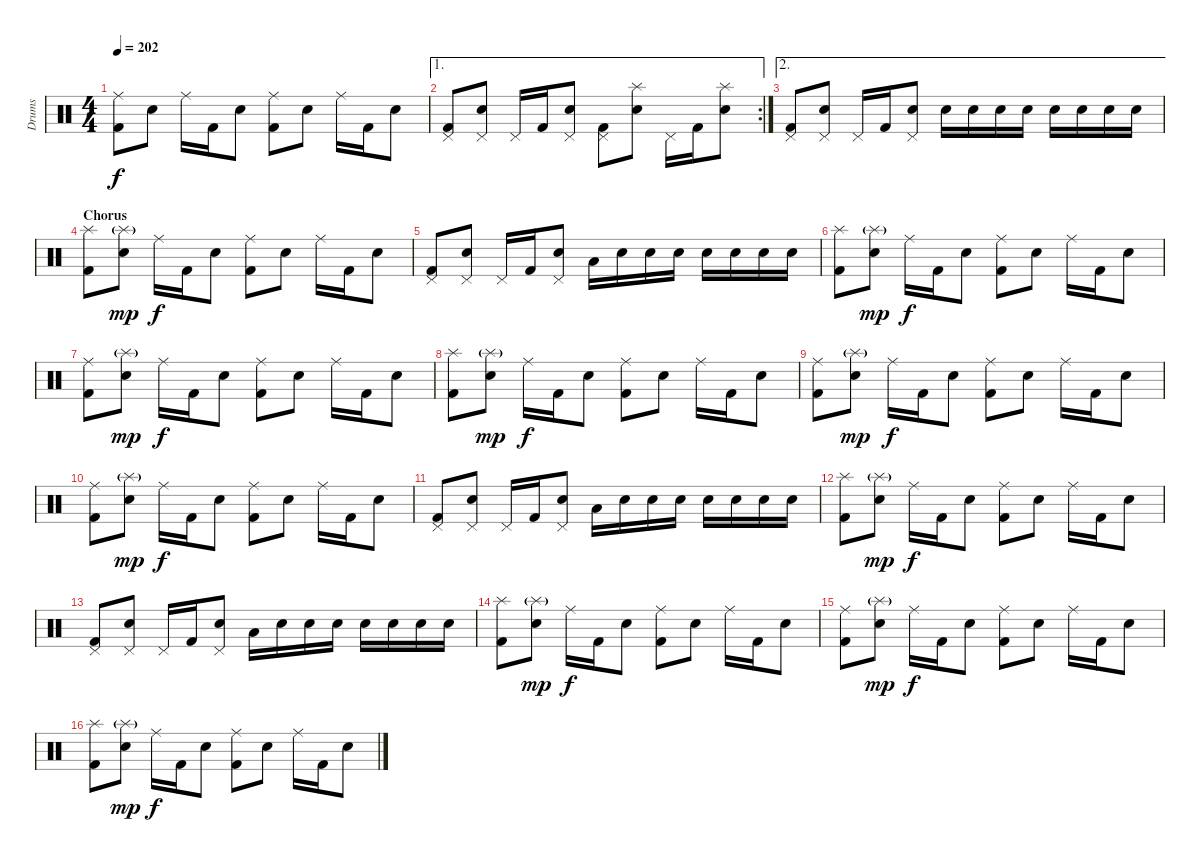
\track ("Drums" "Drums") {instrument percussion}
\staff {score}
\articulation defaults
\ts (4 4)
\tempo 202
\clef neutral
\ks c
("Ride (middle)" "Kick (hit) 2").8{dy f} "Electric Snare (hit)".8 "Ride (middle)".16 "Kick (hit) 2".16 "Electric Snare (hit)".8 ("Ride (middle)" "Kick (hit) 2").8 "Electric Snare (hit)".8 "Ride (middle)".16 "Kick (hit) 2".16 "Electric Snare (hit)".8 |
\ae 1
\rc 2
("Pedal Hi-Hat (hit)" "Kick (hit) 2").8 ("Pedal Hi-Hat (hit)" "Electric Snare (hit)").8 "Pedal Hi-Hat (hit)".16 "Kick (hit) 2".16 ("Pedal Hi-Hat (hit)" "Electric Snare (hit)").8 ("Pedal Hi-Hat (hit)" "Kick (hit) 2").8 ("Splash (hit)" "Electric Snare (hit)").8 "Pedal Hi-Hat (hit)".16 "Kick (hit) 2".16 ("Splash (hit)" "Electric Snare (hit)").8 |
\ae 2
("Pedal Hi-Hat (hit)" "Kick (hit) 2").8 ("Pedal Hi-Hat (hit)" "Electric Snare (hit)").8 "Pedal Hi-Hat (hit)".16 "Kick (hit) 2".16 ("Pedal Hi-Hat (hit)" "Electric Snare (hit)").8 "Electric Snare (hit)".16 "Electric Snare (hit)".16 "Electric Snare (hit)".16 "Electric Snare (hit)".16 "Electric Snare (hit)".16 "Electric Snare (hit)".16 "Electric Snare (hit)".16 "Electric Snare (hit)".16 |
\section ("" "Chorus")
("Splash (hit)" "Kick (hit) 2").8 ("Splash (hit)"{g} "Electric Snare (hit)").8{dy mp} "Ride (middle)".16{dy f} "Kick (hit) 2".16 "Electric Snare (hit)".8 ("Ride (middle)" "Kick (hit) 2").8 "Electric Snare (hit)".8 "Ride (middle)".16 "Kick (hit) 2".16 "Electric Snare (hit)".8 |
("Pedal Hi-Hat (hit)" "Kick (hit) 2").8 ("Pedal Hi-Hat (hit)" "Electric Snare (hit)").8 "Pedal Hi-Hat (hit)".16 "Kick (hit) 2".16 ("Pedal Hi-Hat (hit)" "Electric Snare (hit)").8 "Low Tom (hit)".16 "Electric Snare (hit)".16 "Electric Snare (hit)".16 "Electric Snare (hit)".16 "Electric Snare (hit)".16 "Electric Snare (hit)".16 "Electric Snare (hit)".16 "Electric Snare (hit)".16 |
("Splash (hit)" "Kick (hit) 2").8 ("Splash (hit)"{g} "Electric Snare (hit)").8{dy mp} "Ride (middle)".16{dy f} "Kick (hit) 2".16 "Electric Snare (hit)".8 ("Ride (middle)" "Kick (hit) 2").8 "Electric Snare (hit)".8 "Ride (middle)".16 "Kick (hit) 2".16 "Electric Snare (hit)".8 |
("Ride (middle)" "Kick (hit) 2").8 ("Splash (hit)"{g} "Electric Snare (hit)").8{dy mp} "Ride (middle)".16{dy f} "Kick (hit) 2".16 "Electric Snare (hit)".8 ("Ride (middle)" "Kick (hit) 2").8 "Electric Snare (hit)".8 "Ride (middle)".16 "Kick (hit) 2".16 "Electric Snare (hit)".8 |
("Splash (hit)" "Kick (hit) 2").8 ("Splash (hit)"{g} "Electric Snare (hit)").8{dy mp} "Ride (middle)".16{dy f} "Kick (hit) 2".16 "Electric Snare (hit)".8 ("Ride (middle)" "Kick (hit) 2").8 "Electric Snare (hit)".8 "Ride (middle)".16 "Kick (hit) 2".16 "Electric Snare (hit)".8 |
("Ride (middle)" "Kick (hit) 2").8 ("Splash (hit)"{g} "Electric Snare (hit)").8{dy mp} "Ride (middle)".16{dy f} "Kick (hit) 2".16 "Electric Snare (hit)".8 ("Ride (middle)" "Kick (hit) 2").8 "Electric Snare (hit)".8 "Ride (middle)".16 "Kick (hit) 2".16 "Electric Snare (hit)".8 |
("Ride (middle)" "Kick (hit) 2").8 ("Splash (hit)"{g} "Electric Snare (hit)").8{dy mp} "Ride (middle)".16{dy f} "Kick (hit) 2".16 "Electric Snare (hit)".8 ("Ride (middle)" "Kick (hit) 2").8 "Electric Snare (hit)".8 "Ride (middle)".16 "Kick (hit) 2".16 "Electric Snare (hit)".8 |
("Pedal Hi-Hat (hit)" "Kick (hit) 2").8 ("Pedal Hi-Hat (hit)" "Electric Snare (hit)").8 "Pedal Hi-Hat (hit)".16 "Kick (hit) 2".16 ("Pedal Hi-Hat (hit)" "Electric Snare (hit)").8 "Low Tom (hit)".16 "Electric Snare (hit)".16 "Electric Snare (hit)".16 "Electric Snare (hit)".16 "Electric Snare (hit)".16 "Electric Snare (hit)".16 "Electric Snare (hit)".16 "Electric Snare (hit)".16 |
("Splash (hit)" "Kick (hit) 2").8 ("Splash (hit)"{g} "Electric Snare (hit)").8{dy mp} "Ride (middle)".16{dy f} "Kick (hit) 2".16 "Electric Snare (hit)".8 ("Ride (middle)" "Kick (hit) 2").8 "Electric Snare (hit)".8 "Ride (middle)".16 "Kick (hit) 2".16 "Electric Snare (hit)".8 |
("Pedal Hi-Hat (hit)" "Kick (hit) 2").8 ("Pedal Hi-Hat (hit)" "Electric Snare (hit)").8 "Pedal Hi-Hat (hit)".16 "Kick (hit) 2".16 ("Pedal Hi-Hat (hit)" "Electric Snare (hit)").8 "Low Tom (hit)".16 "Electric Snare (hit)".16 "Electric Snare (hit)".16 "Electric Snare (hit)".16 "Electric Snare (hit)".16 "Electric Snare (hit)".16 "Electric Snare (hit)".16 "Electric Snare (hit)".16 |
("Splash (hit)" "Kick (hit) 2").8 ("Splash (hit)"{g} "Electric Snare (hit)").8{dy mp} "Ride (middle)".16{dy f} "Kick (hit) 2".16 "Electric Snare (hit)".8 ("Ride (middle)" "Kick (hit) 2").8 "Electric Snare (hit)".8 "Ride (middle)".16 "Kick (hit) 2".16 "Electric Snare (hit)".8 |
("Ride (middle)" "Kick (hit) 2").8 ("Splash (hit)"{g} "Electric Snare (hit)").8{dy mp} "Ride (middle)".16{dy f} "Kick (hit) 2".16 "Electric Snare (hit)".8 ("Ride (middle)" "Kick (hit) 2").8 "Electric Snare (hit)".8 "Ride (middle)".16 "Kick (hit) 2".16 "Electric Snare (hit)".8 |
("Splash (hit)" "Kick (hit) 2").8 ("Splash (hit)"{g} "Electric Snare (hit)").8{dy mp} "Ride (middle)".16{dy f} "Kick (hit) 2".16 "Electric Snare (hit)".8 ("Ride (middle)" "Kick (hit) 2").8 "Electric Snare (hit)".8 "Ride (middle)".16 "Kick (hit) 2".16 "Electric Snare (hit)".8
